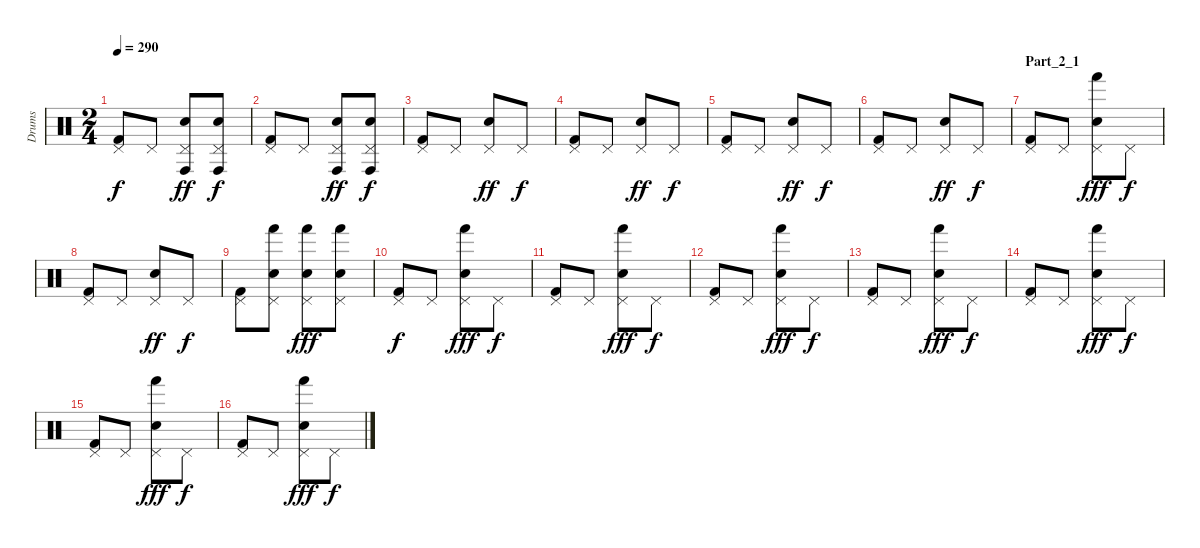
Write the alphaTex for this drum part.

\track ("Drums" "Drums") {instrument percussion}
\staff {score}
\articulation defaults
\ts (2 4)
\tempo 290
\clef neutral
\ks c
("Pedal Hi-Hat (hit)" "Kick (hit) 2").8{dy f} "Pedal Hi-Hat (hit)".8 ("Pedal Hi-Hat (hit)" "Conga high (hit)" "Electric Snare (hit)").8{dy ff} ("Pedal Hi-Hat (hit)" "Conga high (hit)" "Electric Snare (hit)").8{dy f} |
("Pedal Hi-Hat (hit)" "Kick (hit) 2").8 "Pedal Hi-Hat (hit)".8 ("Pedal Hi-Hat (hit)" "Conga high (hit)" "Electric Snare (hit)").8{dy ff} ("Pedal Hi-Hat (hit)" "Conga high (hit)" "Electric Snare (hit)").8{dy f} |
("Pedal Hi-Hat (hit)" "Kick (hit) 2").8 "Pedal Hi-Hat (hit)".8 ("Pedal Hi-Hat (hit)" "Electric Snare (hit)").8{dy ff} "Pedal Hi-Hat (hit)".8{dy f} |
("Pedal Hi-Hat (hit)" "Kick (hit) 2").8 "Pedal Hi-Hat (hit)".8 ("Pedal Hi-Hat (hit)" "Electric Snare (hit)").8{dy ff} "Pedal Hi-Hat (hit)".8{dy f} |
("Pedal Hi-Hat (hit)" "Kick (hit) 2").8 "Pedal Hi-Hat (hit)".8 ("Pedal Hi-Hat (hit)" "Electric Snare (hit)").8{dy ff} "Pedal Hi-Hat (hit)".8{dy f} |
("Pedal Hi-Hat (hit)" "Kick (hit) 2").8 "Pedal Hi-Hat (hit)".8 ("Pedal Hi-Hat (hit)" "Electric Snare (hit)").8{dy ff} "Pedal Hi-Hat (hit)".8{dy f} |
\section ("" "Part_2_1")
("Pedal Hi-Hat (hit)" "Kick (hit) 2").8 "Pedal Hi-Hat (hit)".8 ("Pedal Hi-Hat (hit)" "Hand (hit)" "Electric Snare (hit)").8{dy fff} "Pedal Hi-Hat (hit)".8{dy f} |
("Pedal Hi-Hat (hit)" "Kick (hit) 2").8 "Pedal Hi-Hat (hit)".8 ("Pedal Hi-Hat (hit)" "Electric Snare (hit)").8{dy ff} "Pedal Hi-Hat (hit)".8{dy f} |
("Pedal Hi-Hat (hit)" "Kick (hit) 2").8 ("Pedal Hi-Hat (hit)" "Hand (hit)" "Electric Snare (hit)").8 ("Pedal Hi-Hat (hit)" "Hand (hit)" "Electric Snare (hit)").8{dy fff} ("Pedal Hi-Hat (hit)" "Hand (hit)" "Electric Snare (hit)").8 |
("Pedal Hi-Hat (hit)" "Kick (hit) 2").8{dy f} "Pedal Hi-Hat (hit)".8 ("Pedal Hi-Hat (hit)" "Hand (hit)" "Electric Snare (hit)").8{dy fff} "Pedal Hi-Hat (hit)".8{dy f} |
("Pedal Hi-Hat (hit)" "Kick (hit) 2").8 "Pedal Hi-Hat (hit)".8 ("Pedal Hi-Hat (hit)" "Hand (hit)" "Electric Snare (hit)").8{dy fff} "Pedal Hi-Hat (hit)".8{dy f} |
("Pedal Hi-Hat (hit)" "Kick (hit) 2").8 "Pedal Hi-Hat (hit)".8 ("Pedal Hi-Hat (hit)" "Hand (hit)" "Electric Snare (hit)").8{dy fff} "Pedal Hi-Hat (hit)".8{dy f} |
("Pedal Hi-Hat (hit)" "Kick (hit) 2").8 "Pedal Hi-Hat (hit)".8 ("Pedal Hi-Hat (hit)" "Hand (hit)" "Electric Snare (hit)").8{dy fff} "Pedal Hi-Hat (hit)".8{dy f} |
("Pedal Hi-Hat (hit)" "Kick (hit) 2").8 "Pedal Hi-Hat (hit)".8 ("Pedal Hi-Hat (hit)" "Hand (hit)" "Electric Snare (hit)").8{dy fff} "Pedal Hi-Hat (hit)".8{dy f} |
("Pedal Hi-Hat (hit)" "Kick (hit) 2").8 "Pedal Hi-Hat (hit)".8 ("Pedal Hi-Hat (hit)" "Hand (hit)" "Electric Snare (hit)").8{dy fff} "Pedal Hi-Hat (hit)".8{dy f} |
("Pedal Hi-Hat (hit)" "Kick (hit) 2").8 "Pedal Hi-Hat (hit)".8 ("Pedal Hi-Hat (hit)" "Hand (hit)" "Electric Snare (hit)").8{dy fff} "Pedal Hi-Hat (hit)".8{dy f}
